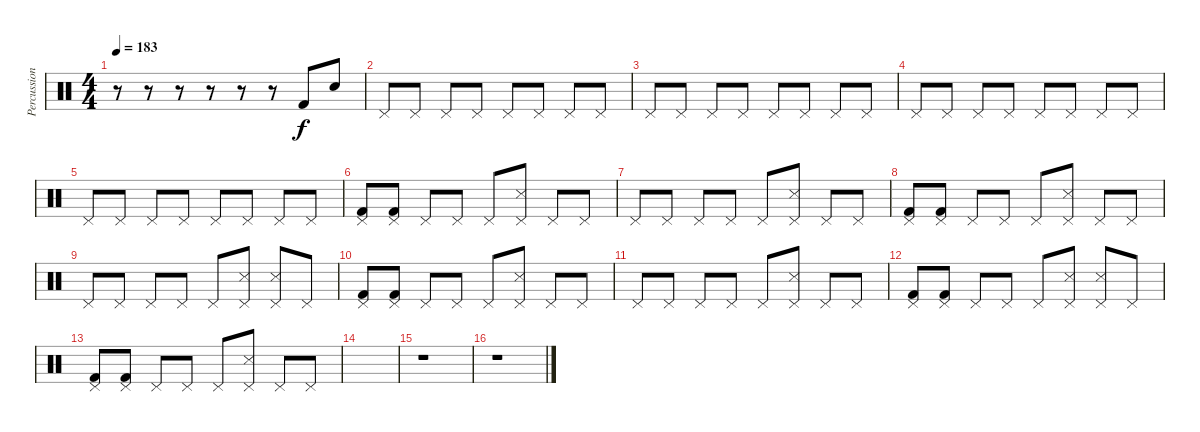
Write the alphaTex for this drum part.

\track ("Percussion" "Percussion") {instrument percussion}
\staff {score}
\articulation defaults
\ts (4 4)
\tempo 183
\clef neutral
\ks c
r.8{dy f} r.8 r.8 r.8 r.8 r.8 "Kick (hit) 2".8 "Electric Snare (hit)".8 |
"Pedal Hi-Hat (hit)".8 "Pedal Hi-Hat (hit)".8 "Pedal Hi-Hat (hit)".8 "Pedal Hi-Hat (hit)".8 "Pedal Hi-Hat (hit)".8 "Pedal Hi-Hat (hit)".8 "Pedal Hi-Hat (hit)".8 "Pedal Hi-Hat (hit)".8 |
"Pedal Hi-Hat (hit)".8 "Pedal Hi-Hat (hit)".8 "Pedal Hi-Hat (hit)".8 "Pedal Hi-Hat (hit)".8 "Pedal Hi-Hat (hit)".8 "Pedal Hi-Hat (hit)".8 "Pedal Hi-Hat (hit)".8 "Pedal Hi-Hat (hit)".8 |
"Pedal Hi-Hat (hit)".8 "Pedal Hi-Hat (hit)".8 "Pedal Hi-Hat (hit)".8 "Pedal Hi-Hat (hit)".8 "Pedal Hi-Hat (hit)".8 "Pedal Hi-Hat (hit)".8 "Pedal Hi-Hat (hit)".8 "Pedal Hi-Hat (hit)".8 |
"Pedal Hi-Hat (hit)".8 "Pedal Hi-Hat (hit)".8 "Pedal Hi-Hat (hit)".8 "Pedal Hi-Hat (hit)".8 "Pedal Hi-Hat (hit)".8 "Pedal Hi-Hat (hit)".8 "Pedal Hi-Hat (hit)".8 "Pedal Hi-Hat (hit)".8 |
("Pedal Hi-Hat (hit)" "Kick (hit) 2").8 ("Pedal Hi-Hat (hit)" "Kick (hit) 2").8 "Pedal Hi-Hat (hit)".8 "Pedal Hi-Hat (hit)".8 "Pedal Hi-Hat (hit)".8 ("Pedal Hi-Hat (hit)" "Snare (side stick) 3").8 "Pedal Hi-Hat (hit)".8 "Pedal Hi-Hat (hit)".8 |
"Pedal Hi-Hat (hit)".8 "Pedal Hi-Hat (hit)".8 "Pedal Hi-Hat (hit)".8 "Pedal Hi-Hat (hit)".8 "Pedal Hi-Hat (hit)".8 ("Pedal Hi-Hat (hit)" "Snare (side stick) 3").8 "Pedal Hi-Hat (hit)".8 "Pedal Hi-Hat (hit)".8 |
("Pedal Hi-Hat (hit)" "Kick (hit) 2").8 ("Pedal Hi-Hat (hit)" "Kick (hit) 2").8 "Pedal Hi-Hat (hit)".8 "Pedal Hi-Hat (hit)".8 "Pedal Hi-Hat (hit)".8 ("Pedal Hi-Hat (hit)" "Snare (side stick) 3").8 "Pedal Hi-Hat (hit)".8 "Pedal Hi-Hat (hit)".8 |
"Pedal Hi-Hat (hit)".8 "Pedal Hi-Hat (hit)".8 "Pedal Hi-Hat (hit)".8 "Pedal Hi-Hat (hit)".8 "Pedal Hi-Hat (hit)".8 ("Pedal Hi-Hat (hit)" "Snare (side stick) 3").8 ("Pedal Hi-Hat (hit)" "Snare (side stick) 3").8 "Pedal Hi-Hat (hit)".8 |
("Pedal Hi-Hat (hit)" "Kick (hit) 2").8 ("Pedal Hi-Hat (hit)" "Kick (hit) 2").8 "Pedal Hi-Hat (hit)".8 "Pedal Hi-Hat (hit)".8 "Pedal Hi-Hat (hit)".8 ("Pedal Hi-Hat (hit)" "Snare (side stick) 3").8 "Pedal Hi-Hat (hit)".8 "Pedal Hi-Hat (hit)".8 |
"Pedal Hi-Hat (hit)".8 "Pedal Hi-Hat (hit)".8 "Pedal Hi-Hat (hit)".8 "Pedal Hi-Hat (hit)".8 "Pedal Hi-Hat (hit)".8 ("Pedal Hi-Hat (hit)" "Snare (side stick) 3").8 "Pedal Hi-Hat (hit)".8 "Pedal Hi-Hat (hit)".8 |
("Pedal Hi-Hat (hit)" "Kick (hit) 2").8 ("Pedal Hi-Hat (hit)" "Kick (hit) 2").8 "Pedal Hi-Hat (hit)".8 "Pedal Hi-Hat (hit)".8 "Pedal Hi-Hat (hit)".8 ("Pedal Hi-Hat (hit)" "Snare (side stick) 3").8 ("Pedal Hi-Hat (hit)" "Snare (side stick) 3").8 "Pedal Hi-Hat (hit)".8 |
("Pedal Hi-Hat (hit)" "Kick (hit) 2").8 ("Pedal Hi-Hat (hit)" "Kick (hit) 2").8 "Pedal Hi-Hat (hit)".8 "Pedal Hi-Hat (hit)".8 "Pedal Hi-Hat (hit)".8 ("Pedal Hi-Hat (hit)" "Snare (side stick) 3").8 "Pedal Hi-Hat (hit)".8 "Pedal Hi-Hat (hit)".8 |
|
r.1 |
r.1
